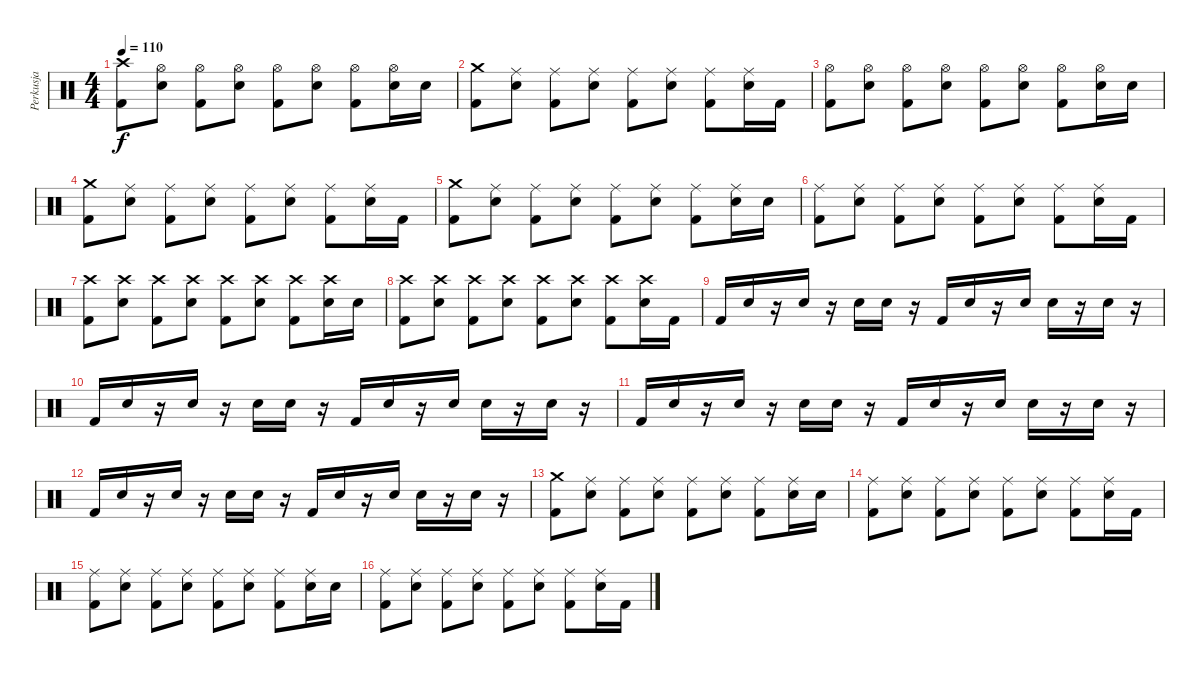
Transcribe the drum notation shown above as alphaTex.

\track ("Perkusja" "Perkusja") {instrument percussion}
\staff {score}
\articulation defaults
\ts (4 4)
\tempo 110
\clef neutral
\ks c
("Kick (hit) 2" "Crash high (hit)").8{dy f} ("Electric Snare (hit)" "Hi-Hat (open)").8 ("Kick (hit) 2" "Hi-Hat (open)").8 ("Electric Snare (hit)" "Hi-Hat (open)").8 ("Kick (hit) 2" "Hi-Hat (open)").8 ("Electric Snare (hit)" "Hi-Hat (open)").8 ("Kick (hit) 2" "Hi-Hat (open)").8 ("Electric Snare (hit)" "Hi-Hat (open)").16 "Electric Snare (hit)".16 |
("Kick (hit) 2" "Crash medium (hit)").8 ("Electric Snare (hit)" "Ride (middle)").8 ("Kick (hit) 2" "Ride (middle)").8 ("Electric Snare (hit)" "Ride (middle)").8 ("Kick (hit) 2" "Ride (middle)").8 ("Electric Snare (hit)" "Ride (middle)").8 ("Kick (hit) 2" "Ride (middle)").8 ("Electric Snare (hit)" "Ride (middle)").16 "Kick (hit) 2".16 |
("Kick (hit) 2" "Hi-Hat (open)").8 ("Electric Snare (hit)" "Hi-Hat (open)").8 ("Kick (hit) 2" "Hi-Hat (open)").8 ("Electric Snare (hit)" "Hi-Hat (open)").8 ("Kick (hit) 2" "Hi-Hat (open)").8 ("Electric Snare (hit)" "Hi-Hat (open)").8 ("Kick (hit) 2" "Hi-Hat (open)").8 ("Electric Snare (hit)" "Hi-Hat (open)").16 "Electric Snare (hit)".16 |
("Kick (hit) 2" "Crash medium (hit)").8 ("Electric Snare (hit)" "Ride (middle)").8 ("Kick (hit) 2" "Ride (middle)").8 ("Electric Snare (hit)" "Ride (middle)").8 ("Kick (hit) 2" "Ride (middle)").8 ("Electric Snare (hit)" "Ride (middle)").8 ("Kick (hit) 2" "Ride (middle)").8 ("Electric Snare (hit)" "Ride (middle)").16 "Kick (hit) 2".16 |
("Kick (hit) 2" "Crash medium (hit)").8 ("Electric Snare (hit)" "Ride (middle)").8 ("Kick (hit) 2" "Ride (middle)").8 ("Electric Snare (hit)" "Ride (middle)").8 ("Kick (hit) 2" "Ride (middle)").8 ("Electric Snare (hit)" "Ride (middle)").8 ("Kick (hit) 2" "Ride (middle)").8 ("Electric Snare (hit)" "Ride (middle)").16 "Electric Snare (hit)".16 |
("Kick (hit) 2" "Ride (middle)").8 ("Electric Snare (hit)" "Ride (middle)").8 ("Kick (hit) 2" "Ride (middle)").8 ("Electric Snare (hit)" "Ride (middle)").8 ("Kick (hit) 2" "Ride (middle)").8 ("Electric Snare (hit)" "Ride (middle)").8 ("Kick (hit) 2" "Ride (middle)").8 ("Electric Snare (hit)" "Ride (middle)").16 "Kick (hit) 2".16 |
("Kick (hit) 2" "Crash high (hit)").8 ("Electric Snare (hit)" "Crash high (hit)").8 ("Kick (hit) 2" "Crash high (hit)").8 ("Electric Snare (hit)" "Crash high (hit)").8 ("Kick (hit) 2" "Crash high (hit)").8 ("Electric Snare (hit)" "Crash high (hit)").8 ("Kick (hit) 2" "Crash high (hit)").8 ("Electric Snare (hit)" "Crash high (hit)").16 "Electric Snare (hit)".16 |
("Kick (hit) 2" "Crash high (hit)").8 ("Electric Snare (hit)" "Crash high (hit)").8 ("Kick (hit) 2" "Crash high (hit)").8 ("Electric Snare (hit)" "Crash high (hit)").8 ("Kick (hit) 2" "Crash high (hit)").8 ("Electric Snare (hit)" "Crash high (hit)").8 ("Kick (hit) 2" "Crash high (hit)").8 ("Electric Snare (hit)" "Crash high (hit)").16 "Kick (hit) 2".16 |
"Kick (hit) 2".16 "Electric Snare (hit)".16 r.16 "Electric Snare (hit)".16 r.16 "Electric Snare (hit)".16 "Electric Snare (hit)".16 r.16 "Kick (hit) 2".16 "Electric Snare (hit)".16 r.16 "Electric Snare (hit)".16 "Electric Snare (hit)".16 r.16 "Electric Snare (hit)".16 r.16 |
"Kick (hit) 2".16 "Electric Snare (hit)".16 r.16 "Electric Snare (hit)".16 r.16 "Electric Snare (hit)".16 "Electric Snare (hit)".16 r.16 "Kick (hit) 2".16 "Electric Snare (hit)".16 r.16 "Electric Snare (hit)".16 "Electric Snare (hit)".16 r.16 "Electric Snare (hit)".16 r.16 |
"Kick (hit) 2".16 "Electric Snare (hit)".16 r.16 "Electric Snare (hit)".16 r.16 "Electric Snare (hit)".16 "Electric Snare (hit)".16 r.16 "Kick (hit) 2".16 "Electric Snare (hit)".16 r.16 "Electric Snare (hit)".16 "Electric Snare (hit)".16 r.16 "Electric Snare (hit)".16 r.16 |
"Kick (hit) 2".16 "Electric Snare (hit)".16 r.16 "Electric Snare (hit)".16 r.16 "Electric Snare (hit)".16 "Electric Snare (hit)".16 r.16 "Kick (hit) 2".16 "Electric Snare (hit)".16 r.16 "Electric Snare (hit)".16 "Electric Snare (hit)".16 r.16 "Electric Snare (hit)".16 r.16 |
("Kick (hit) 2" "Crash medium (hit)").8 ("Electric Snare (hit)" "Ride (middle)").8 ("Kick (hit) 2" "Ride (middle)").8 ("Electric Snare (hit)" "Ride (middle)").8 ("Kick (hit) 2" "Ride (middle)").8 ("Electric Snare (hit)" "Ride (middle)").8 ("Kick (hit) 2" "Ride (middle)").8 ("Electric Snare (hit)" "Ride (middle)").16 "Electric Snare (hit)".16 |
("Kick (hit) 2" "Ride (middle)").8 ("Electric Snare (hit)" "Ride (middle)").8 ("Kick (hit) 2" "Ride (middle)").8 ("Electric Snare (hit)" "Ride (middle)").8 ("Kick (hit) 2" "Ride (middle)").8 ("Electric Snare (hit)" "Ride (middle)").8 ("Kick (hit) 2" "Ride (middle)").8 ("Electric Snare (hit)" "Ride (middle)").16 "Kick (hit) 2".16 |
("Kick (hit) 2" "Ride (middle)").8 ("Electric Snare (hit)" "Ride (middle)").8 ("Kick (hit) 2" "Ride (middle)").8 ("Electric Snare (hit)" "Ride (middle)").8 ("Kick (hit) 2" "Ride (middle)").8 ("Electric Snare (hit)" "Ride (middle)").8 ("Kick (hit) 2" "Ride (middle)").8 ("Electric Snare (hit)" "Ride (middle)").16 "Electric Snare (hit)".16 |
("Kick (hit) 2" "Ride (middle)").8 ("Electric Snare (hit)" "Ride (middle)").8 ("Kick (hit) 2" "Ride (middle)").8 ("Electric Snare (hit)" "Ride (middle)").8 ("Kick (hit) 2" "Ride (middle)").8 ("Electric Snare (hit)" "Ride (middle)").8 ("Kick (hit) 2" "Ride (middle)").8 ("Electric Snare (hit)" "Ride (middle)").16 "Kick (hit) 2".16
